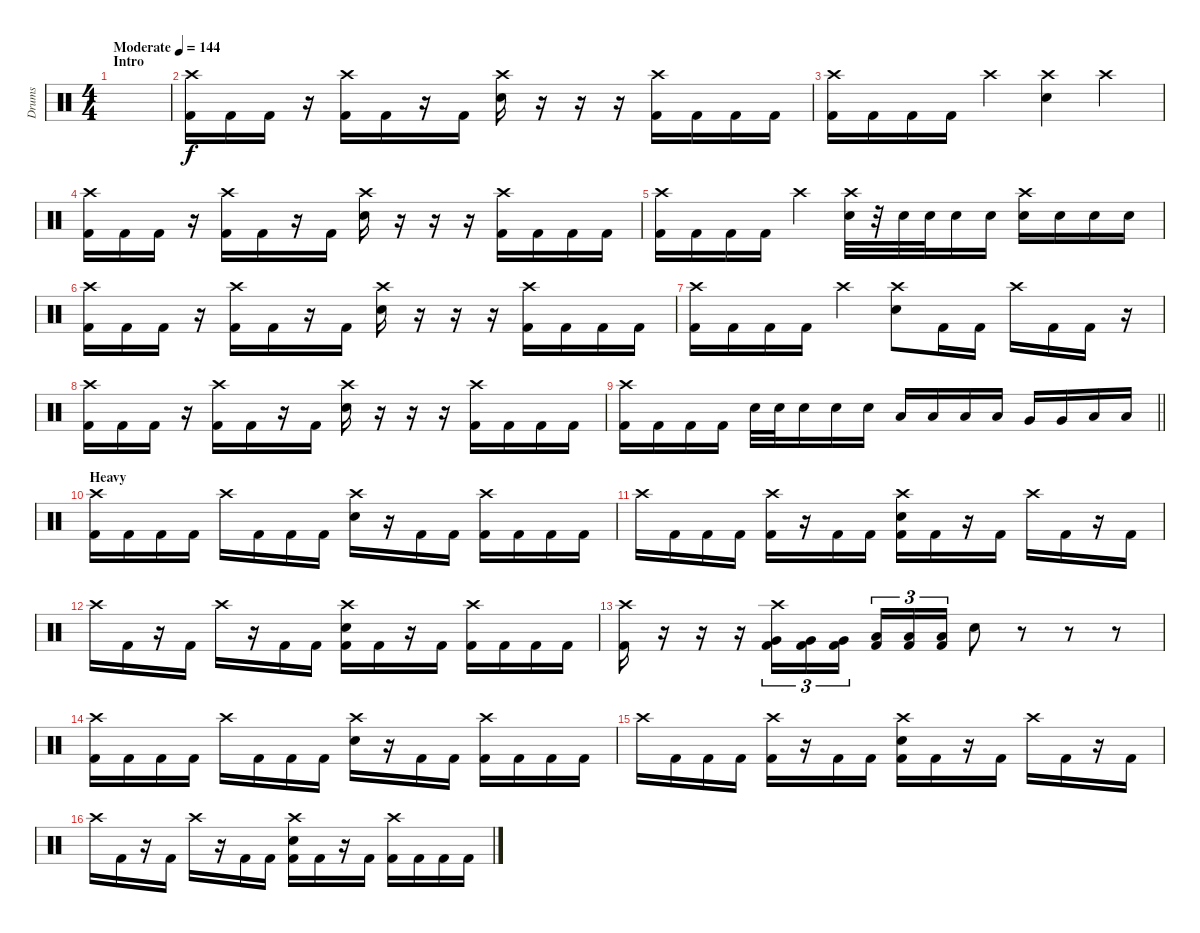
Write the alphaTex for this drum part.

\track ("Drums" "Drums") {instrument percussion}
\staff {score}
\articulation defaults
\ts (4 4)
\section ("" "Intro")
\tempo (144 "Moderate")
\clef neutral
\ks c
|
("Crash high (hit)" "Kick (hit) 2").16 "Kick (hit) 2".16 "Kick (hit) 2".16 r.16 ("Crash high (hit)" "Kick (hit) 2").16 "Kick (hit) 2".16 r.16 "Kick (hit) 2".16 ("Crash high (hit)" "Snare (hit) 2").16 r.16 r.16 r.16 ("Crash high (hit)" "Kick (hit) 2").16 "Kick (hit) 2".16 "Kick (hit) 2".16 "Kick (hit) 2".16 |
("Crash high (hit)" "Kick (hit) 2").16 "Kick (hit) 2".16 "Kick (hit) 2".16 "Kick (hit) 2".16 "Crash high (hit)".4 ("Crash high (hit)" "Snare (hit) 2").4 "Crash high (hit)".4 |
("Crash high (hit)" "Kick (hit) 2").16 "Kick (hit) 2".16 "Kick (hit) 2".16 r.16 ("Crash high (hit)" "Kick (hit) 2").16 "Kick (hit) 2".16 r.16 "Kick (hit) 2".16 ("Crash high (hit)" "Snare (hit) 2").16 r.16 r.16 r.16 ("Crash high (hit)" "Kick (hit) 2").16 "Kick (hit) 2".16 "Kick (hit) 2".16 "Kick (hit) 2".16 |
("Crash high (hit)" "Kick (hit) 2").16 "Kick (hit) 2".16 "Kick (hit) 2".16 "Kick (hit) 2".16 "Crash high (hit)".4 ("Crash high (hit)" "Snare (hit) 2").32 r.32 "Snare (hit) 2".32 "Snare (hit) 2".32 "Snare (hit) 2".16 "Snare (hit) 2".16 ("Crash high (hit)" "Snare (hit) 2").16 "Snare (hit) 2".16 "Snare (hit) 2".16 "Snare (hit) 2".16 |
("Crash high (hit)" "Kick (hit) 2").16 "Kick (hit) 2".16 "Kick (hit) 2".16 r.16 ("Crash high (hit)" "Kick (hit) 2").16 "Kick (hit) 2".16 r.16 "Kick (hit) 2".16 ("Crash high (hit)" "Snare (hit) 2").16 r.16 r.16 r.16 ("Crash high (hit)" "Kick (hit) 2").16 "Kick (hit) 2".16 "Kick (hit) 2".16 "Kick (hit) 2".16 |
("Crash high (hit)" "Kick (hit) 2").16 "Kick (hit) 2".16 "Kick (hit) 2".16 "Kick (hit) 2".16 "Crash high (hit)".4 ("Crash high (hit)" "Snare (hit) 2").8 "Kick (hit) 2".16 "Kick (hit) 2".16 "Crash high (hit)".16 "Kick (hit) 2".16 "Kick (hit) 2".16 r.16 |
("Crash high (hit)" "Kick (hit) 2").16 "Kick (hit) 2".16 "Kick (hit) 2".16 r.16 ("Crash high (hit)" "Kick (hit) 2").16 "Kick (hit) 2".16 r.16 "Kick (hit) 2".16 ("Crash high (hit)" "Snare (hit) 2").16 r.16 r.16 r.16 ("Crash high (hit)" "Kick (hit) 2").16 "Kick (hit) 2".16 "Kick (hit) 2".16 "Kick (hit) 2".16 |
\barLineRight lightlight
("Crash high (hit)" "Kick (hit) 2").16 "Kick (hit) 2".16 "Kick (hit) 2".16 "Kick (hit) 2".16 "Snare (hit) 2".32 "Snare (hit) 2".32 "Snare (hit) 2".16 "Snare (hit) 2".16 "Snare (hit) 2".16 "Low Tom (hit)".16 "Low Tom (hit)".16 "Low Tom (hit)".16 "Low Tom (hit)".16 "Very Low Tom (hit)".16 "Very Low Tom (hit)".16 "Low Floor Tom (hit)".16 "Low Floor Tom (hit)".16 |
\section ("" "Heavy")
("Crash high (hit)" "Kick (hit) 2").16 "Kick (hit) 2".16 "Kick (hit) 2".16 "Kick (hit) 2".16 "Crash high (hit)".16 "Kick (hit) 2".16 "Kick (hit) 2".16 "Kick (hit) 2".16 ("Crash high (hit)" "Snare (hit) 2").16 r.16 "Kick (hit) 2".16 "Kick (hit) 2".16 ("Crash high (hit)" "Kick (hit) 2").16 "Kick (hit) 2".16 "Kick (hit) 2".16 "Kick (hit) 2".16 |
"Crash high (hit)".16 "Kick (hit) 2".16 "Kick (hit) 2".16 "Kick (hit) 2".16 ("Crash high (hit)" "Kick (hit) 2").16 r.16 "Kick (hit) 2".16 "Kick (hit) 2".16 ("Crash high (hit)" "Snare (hit) 2" "Kick (hit) 2").16 "Kick (hit) 2".16 r.16 "Kick (hit) 2".16 "Crash high (hit)".16 "Kick (hit) 2".16 r.16 "Kick (hit) 2".16 |
"Crash high (hit)".16 "Kick (hit) 2".16 r.16 "Kick (hit) 2".16 "Crash high (hit)".16 r.16 "Kick (hit) 2".16 "Kick (hit) 2".16 ("Crash high (hit)" "Snare (hit) 2" "Kick (hit) 2").16 "Kick (hit) 2".16 r.16 "Kick (hit) 2".16 ("Crash high (hit)" "Kick (hit) 2").16 "Kick (hit) 2".16 "Kick (hit) 2".16 "Kick (hit) 2".16 |
("Crash high (hit)" "Kick (hit) 2").16 r.16 r.16 r.16 ("Crash high (hit)" "Very Low Tom (hit)" "Kick (hit) 2").16{tu (3 2)} ("Very Low Tom (hit)" "Kick (hit) 2").16{tu (3 2)} ("Very Low Tom (hit)" "Kick (hit) 2").16{tu (3 2) beam splitsecondary} ("Low Floor Tom (hit)" "Kick (hit) 2").16{tu (3 2)} ("Low Floor Tom (hit)" "Kick (hit) 2").16{tu (3 2)} ("Low Floor Tom (hit)" "Kick (hit) 2").16{tu (3 2)} "Snare (hit) 2".8 r.8 r.8 r.8 |
("Crash high (hit)" "Kick (hit) 2").16 "Kick (hit) 2".16 "Kick (hit) 2".16 "Kick (hit) 2".16 "Crash high (hit)".16 "Kick (hit) 2".16 "Kick (hit) 2".16 "Kick (hit) 2".16 ("Crash high (hit)" "Snare (hit) 2").16 r.16 "Kick (hit) 2".16 "Kick (hit) 2".16 ("Crash high (hit)" "Kick (hit) 2").16 "Kick (hit) 2".16 "Kick (hit) 2".16 "Kick (hit) 2".16 |
"Crash high (hit)".16 "Kick (hit) 2".16 "Kick (hit) 2".16 "Kick (hit) 2".16 ("Crash high (hit)" "Kick (hit) 2").16 r.16 "Kick (hit) 2".16 "Kick (hit) 2".16 ("Crash high (hit)" "Snare (hit) 2" "Kick (hit) 2").16 "Kick (hit) 2".16 r.16 "Kick (hit) 2".16 "Crash high (hit)".16 "Kick (hit) 2".16 r.16 "Kick (hit) 2".16 |
"Crash high (hit)".16 "Kick (hit) 2".16 r.16 "Kick (hit) 2".16 "Crash high (hit)".16 r.16 "Kick (hit) 2".16 "Kick (hit) 2".16 ("Crash high (hit)" "Snare (hit) 2" "Kick (hit) 2").16 "Kick (hit) 2".16 r.16 "Kick (hit) 2".16 ("Crash high (hit)" "Kick (hit) 2").16 "Kick (hit) 2".16 "Kick (hit) 2".16 "Kick (hit) 2".16
